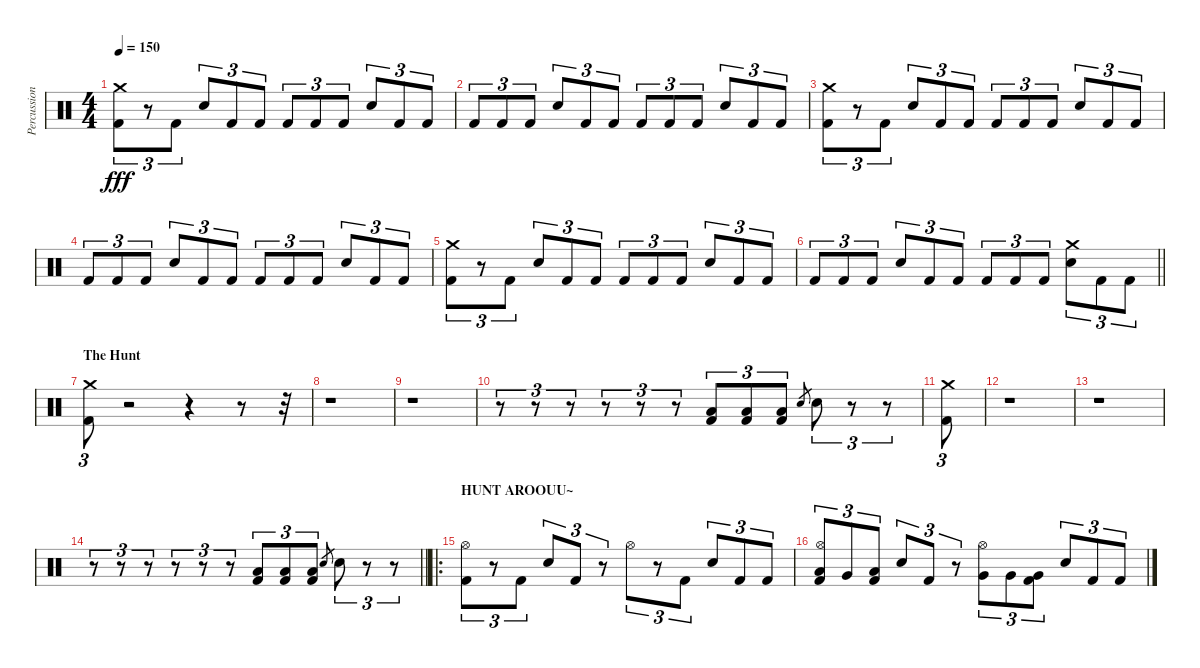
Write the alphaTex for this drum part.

\track ("Percussion" "Percussion") {instrument percussion}
\staff {score}
\articulation defaults
\ts (4 4)
\tempo 150
\clef neutral
\ks c
("Crash medium (hit)" "Kick (hit) 2").8{tu (3 2) dy fff} r.8{tu (3 2)} "Kick (hit) 2".8{tu (3 2)} "Snare (hit) 2".8{tu (3 2)} "Kick (hit) 2".8{tu (3 2)} "Kick (hit) 2".8{tu (3 2)} "Kick (hit) 2".8{tu (3 2)} "Kick (hit) 2".8{tu (3 2)} "Kick (hit) 2".8{tu (3 2)} "Snare (hit) 2".8{tu (3 2)} "Kick (hit) 2".8{tu (3 2)} "Kick (hit) 2".8{tu (3 2)} |
"Kick (hit) 2".8{tu (3 2)} "Kick (hit) 2".8{tu (3 2)} "Kick (hit) 2".8{tu (3 2)} "Snare (hit) 2".8{tu (3 2)} "Kick (hit) 2".8{tu (3 2)} "Kick (hit) 2".8{tu (3 2)} "Kick (hit) 2".8{tu (3 2)} "Kick (hit) 2".8{tu (3 2)} "Kick (hit) 2".8{tu (3 2)} "Snare (hit) 2".8{tu (3 2)} "Kick (hit) 2".8{tu (3 2)} "Kick (hit) 2".8{tu (3 2)} |
("Crash medium (hit)" "Kick (hit) 2").8{tu (3 2)} r.8{tu (3 2)} "Kick (hit) 2".8{tu (3 2)} "Snare (hit) 2".8{tu (3 2)} "Kick (hit) 2".8{tu (3 2)} "Kick (hit) 2".8{tu (3 2)} "Kick (hit) 2".8{tu (3 2)} "Kick (hit) 2".8{tu (3 2)} "Kick (hit) 2".8{tu (3 2)} "Snare (hit) 2".8{tu (3 2)} "Kick (hit) 2".8{tu (3 2)} "Kick (hit) 2".8{tu (3 2)} |
"Kick (hit) 2".8{tu (3 2)} "Kick (hit) 2".8{tu (3 2)} "Kick (hit) 2".8{tu (3 2)} "Snare (hit) 2".8{tu (3 2)} "Kick (hit) 2".8{tu (3 2)} "Kick (hit) 2".8{tu (3 2)} "Kick (hit) 2".8{tu (3 2)} "Kick (hit) 2".8{tu (3 2)} "Kick (hit) 2".8{tu (3 2)} "Snare (hit) 2".8{tu (3 2)} "Kick (hit) 2".8{tu (3 2)} "Kick (hit) 2".8{tu (3 2)} |
("Crash medium (hit)" "Kick (hit) 2").8{tu (3 2)} r.8{tu (3 2)} "Kick (hit) 2".8{tu (3 2)} "Snare (hit) 2".8{tu (3 2)} "Kick (hit) 2".8{tu (3 2)} "Kick (hit) 2".8{tu (3 2)} "Kick (hit) 2".8{tu (3 2)} "Kick (hit) 2".8{tu (3 2)} "Kick (hit) 2".8{tu (3 2)} "Snare (hit) 2".8{tu (3 2)} "Kick (hit) 2".8{tu (3 2)} "Kick (hit) 2".8{tu (3 2)} |
\barLineRight lightlight "Kick (hit) 2".8{tu (3 2)} "Kick (hit) 2".8{tu (3 2)} "Kick (hit) 2".8{tu (3 2)} "Snare (hit) 2".8{tu (3 2)} "Kick (hit) 2".8{tu (3 2)} "Kick (hit) 2".8{tu (3 2)} "Kick (hit) 2".8{tu (3 2)} "Kick (hit) 2".8{tu (3 2)} "Kick (hit) 2".8{tu (3 2)}
("Crash medium (hit)" "Snare (hit) 2").8{tu (3 2)} "Kick (hit) 2".8{tu (3 2)} "Kick (hit) 2".8{tu (3 2)} |
\section ("" "The Hunt")
("Crash medium (hit)" "Kick (hit) 2").8{tu (3 2)} r.2 r.4 r.8 r.32 |
r.1 |
r.1 |
r.8{tu (3 2)} r.8{tu (3 2)} r.8{tu (3 2)} r.8{tu (3 2)} r.8{tu (3 2)} r.8{tu (3 2)} ("Low Floor Tom (hit)" "Kick (hit) 2").8{tu (3 2)} ("Low Floor Tom (hit)" "Kick (hit) 2").8{tu (3 2)} ("Low Floor Tom (hit)" "Kick (hit) 2").8{tu (3 2)} "Electric Snare (hit)".8{gr} "Snare (hit) 2".8{tu (3 2)} r.8{tu (3 2)} r.8{tu (3 2)} |
("Crash medium (hit)" "Kick (hit) 2").8{tu (3 2)} |
r.1 |
r.1 |
\barLineRight lightlight
r.8{tu (3 2)} r.8{tu (3 2)} r.8{tu (3 2)} r.8{tu (3 2)} r.8{tu (3 2)} r.8{tu (3 2)} ("Low Floor Tom (hit)" "Kick (hit) 2").8{tu (3 2)} ("Low Floor Tom (hit)" "Kick (hit) 2").8{tu (3 2)} ("Low Floor Tom (hit)" "Kick (hit) 2").8{tu (3 2)} "Electric Snare (hit)".8{gr} "Snare (hit) 2".8{tu (3 2)} r.8{tu (3 2)} r.8{tu (3 2)} |
\ro
\section ("" "HUNT AROOUU~")
("Hi-Hat (open)" "Kick (hit) 2").8{tu (3 2)} r.8{tu (3 2)} "Kick (hit) 2".8{tu (3 2)} "Snare (hit) 2".8{tu (3 2)} "Kick (hit) 2".8{tu (3 2)} r.8{tu (3 2)} "Hi-Hat (open)".8{tu (3 2)} r.8{tu (3 2)} "Kick (hit) 2".8{tu (3 2)} "Snare (hit) 2".8{tu (3 2)} "Kick (hit) 2".8{tu (3 2)} "Kick (hit) 2".8{tu (3 2)} |
("Hi-Hat (open)" "Low Tom (hit)" "Kick (hit) 2").8{tu (3 2)} "Very Low Tom (hit)".8{tu (3 2)} ("Low Floor Tom (hit)" "Kick (hit) 2").8{tu (3 2)} "Snare (hit) 2".8{tu (3 2)} "Kick (hit) 2".8{tu (3 2)} r.8{tu (3 2)} ("Hi-Hat (open)" "Very Low Tom (hit)").8{tu (3 2)} "Very Low Tom (hit)".8{tu (3 2)} ("Very Low Tom (hit)" "Kick (hit) 2").8{tu (3 2)} "Snare (hit) 2".8{tu (3 2)} "Kick (hit) 2".8{tu (3 2)} "Kick (hit) 2".8{tu (3 2)}
